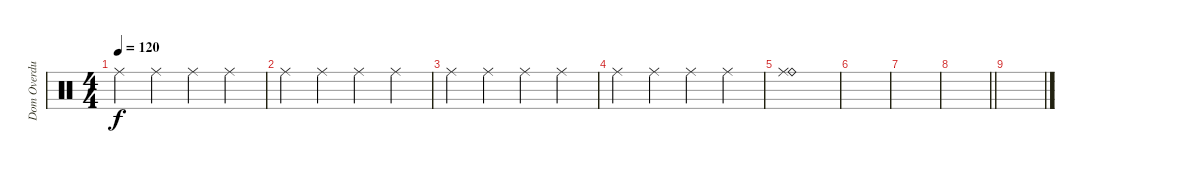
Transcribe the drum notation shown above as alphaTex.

\track ("Dom Overdub" "Dom Overdu") {instrument percussion}
\staff {score}
\articulation defaults
\ts (4 4)
\tempo 120
\clef neutral
\ks c "Ride (middle)".4{dy f} "Ride (middle)".4 "Ride (middle)".4 "Ride (middle)".4
|
"Ride (middle)".4 "Ride (middle)".4 "Ride (middle)".4 "Ride (middle)".4 |
"Ride (middle)".4 "Ride (middle)".4 "Ride (middle)".4 "Ride (middle)".4 |
"Ride (middle)".4 "Ride (middle)".4 "Ride (middle)".4 "Ride (middle)".4 |
("Ride (bell)" "Ride (middle)").1 |
|
|
\barLineRight lightlight
|
\section ("" "")
